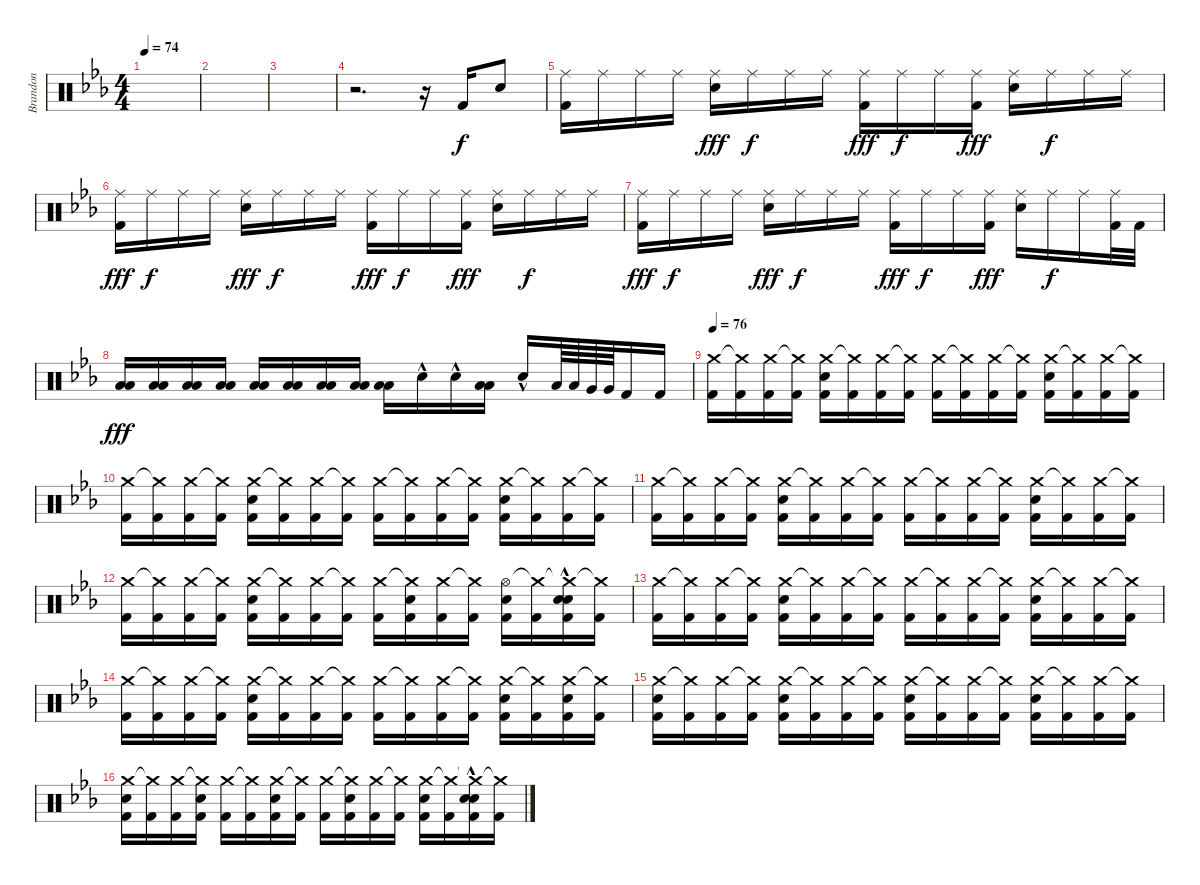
\track ("Brandon" "Brandon") {instrument percussion}
\staff {score}
\articulation defaults
\ts (4 4)
\tempo 74
\clef neutral
\ks cminor
|
|
|
r.2{d} r.16 "Kick (hit) 2".16 "Electric Snare (hit)".8 |
("Ride (middle)" "Kick (hit) 2").16 "Ride (middle)".16{dy f} "Ride (middle)".16 "Ride (middle)".16 ("Ride (middle)" "Electric Snare (hit)").16{dy fff} "Ride (middle)".16{dy f} "Ride (middle)".16 "Ride (middle)".16 ("Ride (middle)" "Kick (hit) 2").16{dy fff} "Ride (middle)".16{dy f} "Ride (middle)".16 ("Ride (middle)" "Kick (hit) 2").16{dy fff} ("Ride (middle)" "Electric Snare (hit)").16 "Ride (middle)".16{dy f} "Ride (middle)".16 "Ride (middle)".16 |
("Ride (middle)" "Kick (hit) 2").16{dy fff} "Ride (middle)".16{dy f} "Ride (middle)".16 "Ride (middle)".16 ("Ride (middle)" "Electric Snare (hit)").16{dy fff} "Ride (middle)".16{dy f} "Ride (middle)".16 "Ride (middle)".16 ("Ride (middle)" "Kick (hit) 2").16{dy fff} "Ride (middle)".16{dy f} "Ride (middle)".16 ("Ride (middle)" "Kick (hit) 2").16{dy fff} ("Ride (middle)" "Electric Snare (hit)").16 "Ride (middle)".16{dy f} "Ride (middle)".16 "Ride (middle)".16 |
("Ride (middle)" "Kick (hit) 2").16{dy fff} "Ride (middle)".16{dy f} "Ride (middle)".16 "Ride (middle)".16 ("Ride (middle)" "Electric Snare (hit)").16{dy fff} "Ride (middle)".16{dy f} "Ride (middle)".16 "Ride (middle)".16 ("Ride (middle)" "Kick (hit) 2").16{dy fff} "Ride (middle)".16{dy f} "Ride (middle)".16 ("Ride (middle)" "Kick (hit) 2").16{dy fff} ("Ride (middle)" "Electric Snare (hit)").16 "Ride (middle)".16{dy f} "Ride (middle)".16 ("Ride (middle)" "Kick (hit) 2").32 "Kick (hit) 2".32 |
("Low Tom (hit)" "Low Floor Tom (hit)").16{dy fff} ("Low Tom (hit)" "Low Floor Tom (hit)").16 ("Low Tom (hit)" "Low Floor Tom (hit)").16 ("Low Tom (hit)" "Low Floor Tom (hit)").16 ("Low Tom (hit)" "Low Floor Tom (hit)").16 ("Low Tom (hit)" "Low Floor Tom (hit)").16 ("Low Tom (hit)" "Low Floor Tom (hit)").16 ("Low Tom (hit)" "Low Floor Tom (hit)").16 ("Low Tom (hit)" "Low Floor Tom (hit)").16 "Electric Snare (hit)"{hac}.16 "Electric Snare (hit)"{hac}.16 ("Low Tom (hit)" "Low Floor Tom (hit)").16 "Electric Snare (hit)"{hac}.16 "Low Tom (hit)".64 "Low Tom (hit)".64 "Very Low Tom (hit)".64 "Very Low Tom (hit)".64 "Kick (hit) 2".16 "Kick (hit) 2".16 |
\tempo 76
("Crash medium (hit)" "Kick (hit) 2").16 ("Crash medium (hit)"{t} "Kick (hit) 2").16 ("Crash medium (hit)" "Kick (hit) 2").16 ("Crash medium (hit)"{t} "Kick (hit) 2").16 ("Crash medium (hit)" "Electric Snare (hit)" "Kick (hit) 2").16 ("Crash medium (hit)"{t} "Kick (hit) 2").16 ("Crash medium (hit)" "Kick (hit) 2").16 ("Crash medium (hit)"{t} "Kick (hit) 2").16 ("Crash medium (hit)" "Kick (hit) 2").16 ("Crash medium (hit)"{t} "Kick (hit) 2").16 ("Crash medium (hit)" "Kick (hit) 2").16 ("Crash medium (hit)"{t} "Kick (hit) 2").16 ("Crash medium (hit)" "Electric Snare (hit)" "Kick (hit) 2").16 ("Crash medium (hit)"{t} "Kick (hit) 2").16 ("Crash medium (hit)" "Kick (hit) 2").16 ("Crash medium (hit)"{t} "Kick (hit) 2").16 |
("Crash medium (hit)" "Kick (hit) 2").16 ("Crash medium (hit)"{t} "Kick (hit) 2").16 ("Crash medium (hit)" "Kick (hit) 2").16 ("Crash medium (hit)"{t} "Kick (hit) 2").16 ("Crash medium (hit)" "Electric Snare (hit)" "Kick (hit) 2").16 ("Crash medium (hit)"{t} "Kick (hit) 2").16 ("Crash medium (hit)" "Kick (hit) 2").16 ("Crash medium (hit)"{t} "Kick (hit) 2").16 ("Crash medium (hit)" "Kick (hit) 2").16 ("Crash medium (hit)"{t} "Kick (hit) 2").16 ("Crash medium (hit)" "Kick (hit) 2").16 ("Crash medium (hit)"{t} "Kick (hit) 2").16 ("Crash medium (hit)" "Electric Snare (hit)" "Kick (hit) 2").16 ("Crash medium (hit)"{t} "Kick (hit) 2").16 ("Crash medium (hit)" "Kick (hit) 2").16 ("Crash medium (hit)"{t} "Kick (hit) 2").16 |
("Crash medium (hit)" "Kick (hit) 2").16 ("Crash medium (hit)"{t} "Kick (hit) 2").16 ("Crash medium (hit)" "Kick (hit) 2").16 ("Crash medium (hit)"{t} "Kick (hit) 2").16 ("Crash medium (hit)" "Electric Snare (hit)" "Kick (hit) 2").16 ("Crash medium (hit)"{t} "Kick (hit) 2").16 ("Crash medium (hit)" "Kick (hit) 2").16 ("Crash medium (hit)"{t} "Kick (hit) 2").16 ("Crash medium (hit)" "Kick (hit) 2").16 ("Crash medium (hit)"{t} "Kick (hit) 2").16 ("Crash medium (hit)" "Kick (hit) 2").16 ("Crash medium (hit)"{t} "Kick (hit) 2").16 ("Crash medium (hit)" "Electric Snare (hit)" "Kick (hit) 2").16 ("Crash medium (hit)"{t} "Kick (hit) 2").16 ("Crash medium (hit)" "Kick (hit) 2").16 ("Crash medium (hit)"{t} "Kick (hit) 2").16 |
("Crash medium (hit)" "Kick (hit) 2").16 ("Crash medium (hit)"{t} "Kick (hit) 2").16 ("Crash medium (hit)" "Kick (hit) 2").16 ("Crash medium (hit)"{t} "Kick (hit) 2").16 ("Crash medium (hit)" "Electric Snare (hit)" "Kick (hit) 2").16 ("Crash medium (hit)"{t} "Kick (hit) 2").16 ("Crash medium (hit)" "Kick (hit) 2").16 ("Crash medium (hit)"{t} "Kick (hit) 2").16 ("Crash medium (hit)" "Kick (hit) 2").16 ("Crash medium (hit)"{t} "Electric Snare (hit)" "Kick (hit) 2").16 ("Crash medium (hit)" "Kick (hit) 2").16 ("Crash medium (hit)"{t} "Kick (hit) 2").16 ("Hi-Hat (open)" "Electric Snare (hit)" "Kick (hit) 2").16 ("Crash medium (hit)"{t} "Kick (hit) 2").16 ("Crash medium (hit)"{t} "Electric Snare (hit)"{hac} "Electric Snare (hit)"{hac} "Kick (hit) 2").16 ("Crash medium (hit)"{t} "Kick (hit) 2").16 |
("Crash medium (hit)" "Kick (hit) 2").16 ("Crash medium (hit)"{t} "Kick (hit) 2").16 ("Crash medium (hit)" "Kick (hit) 2").16 ("Crash medium (hit)"{t} "Kick (hit) 2").16 ("Crash medium (hit)" "Electric Snare (hit)" "Kick (hit) 2").16 ("Crash medium (hit)"{t} "Kick (hit) 2").16 ("Crash medium (hit)" "Kick (hit) 2").16 ("Crash medium (hit)"{t} "Kick (hit) 2").16 ("Crash medium (hit)" "Kick (hit) 2").16 ("Crash medium (hit)"{t} "Kick (hit) 2").16 ("Crash medium (hit)" "Kick (hit) 2").16 ("Crash medium (hit)"{t} "Kick (hit) 2").16 ("Crash medium (hit)" "Electric Snare (hit)" "Kick (hit) 2").16 ("Crash medium (hit)"{t} "Kick (hit) 2").16 ("Crash medium (hit)" "Kick (hit) 2").16 ("Crash medium (hit)"{t} "Kick (hit) 2").16 |
("Crash medium (hit)" "Kick (hit) 2").16 ("Crash medium (hit)"{t} "Kick (hit) 2").16 ("Crash medium (hit)" "Kick (hit) 2").16 ("Crash medium (hit)"{t} "Kick (hit) 2").16 ("Crash medium (hit)" "Electric Snare (hit)" "Kick (hit) 2").16 ("Crash medium (hit)"{t} "Kick (hit) 2").16 ("Crash medium (hit)" "Kick (hit) 2").16 ("Crash medium (hit)"{t} "Kick (hit) 2").16 ("Crash medium (hit)" "Kick (hit) 2").16 ("Crash medium (hit)"{t} "Kick (hit) 2").16 ("Crash medium (hit)" "Kick (hit) 2").16 ("Crash medium (hit)"{t} "Kick (hit) 2").16 ("Crash medium (hit)" "Electric Snare (hit)" "Kick (hit) 2").16 ("Crash medium (hit)"{t} "Kick (hit) 2").16 ("Crash medium (hit)" "Electric Snare (hit)" "Kick (hit) 2").16 ("Crash medium (hit)"{t} "Kick (hit) 2").16 |
("Crash medium (hit)" "Electric Snare (hit)" "Kick (hit) 2").16 ("Crash medium (hit)"{t} "Kick (hit) 2").16 ("Crash medium (hit)" "Kick (hit) 2").16 ("Crash medium (hit)"{t} "Kick (hit) 2").16 ("Crash medium (hit)" "Electric Snare (hit)" "Kick (hit) 2").16 ("Crash medium (hit)"{t} "Kick (hit) 2").16 ("Crash medium (hit)" "Kick (hit) 2").16 ("Crash medium (hit)"{t} "Kick (hit) 2").16 ("Crash medium (hit)" "Electric Snare (hit)" "Kick (hit) 2").16 ("Crash medium (hit)"{t} "Kick (hit) 2").16 ("Crash medium (hit)" "Kick (hit) 2").16 ("Crash medium (hit)"{t} "Kick (hit) 2").16 ("Crash medium (hit)" "Electric Snare (hit)" "Kick (hit) 2").16 ("Crash medium (hit)"{t} "Kick (hit) 2").16 ("Crash medium (hit)" "Kick (hit) 2").16 ("Crash medium (hit)"{t} "Kick (hit) 2").16 |
("Crash medium (hit)" "Electric Snare (hit)" "Kick (hit) 2").16 ("Crash medium (hit)"{t} "Kick (hit) 2").16 ("Crash medium (hit)" "Kick (hit) 2").16 ("Crash medium (hit)"{t} "Electric Snare (hit)" "Kick (hit) 2").16 ("Crash medium (hit)" "Kick (hit) 2").16 ("Crash medium (hit)"{t} "Kick (hit) 2").16 ("Crash medium (hit)" "Electric Snare (hit)" "Kick (hit) 2").16 ("Crash medium (hit)"{t} "Kick (hit) 2").16 ("Crash medium (hit)" "Kick (hit) 2").16 ("Crash medium (hit)"{t} "Electric Snare (hit)" "Kick (hit) 2").16 ("Crash medium (hit)" "Kick (hit) 2").16 ("Crash medium (hit)"{t} "Kick (hit) 2").16 ("Crash medium (hit)" "Electric Snare (hit)" "Kick (hit) 2").16 ("Crash medium (hit)"{t} "Kick (hit) 2").16 ("Crash medium (hit)"{t} "Electric Snare (hit)"{hac} "Electric Snare (hit)"{hac} "Kick (hit) 2").16 ("Crash medium (hit)"{t} "Kick (hit) 2").16
